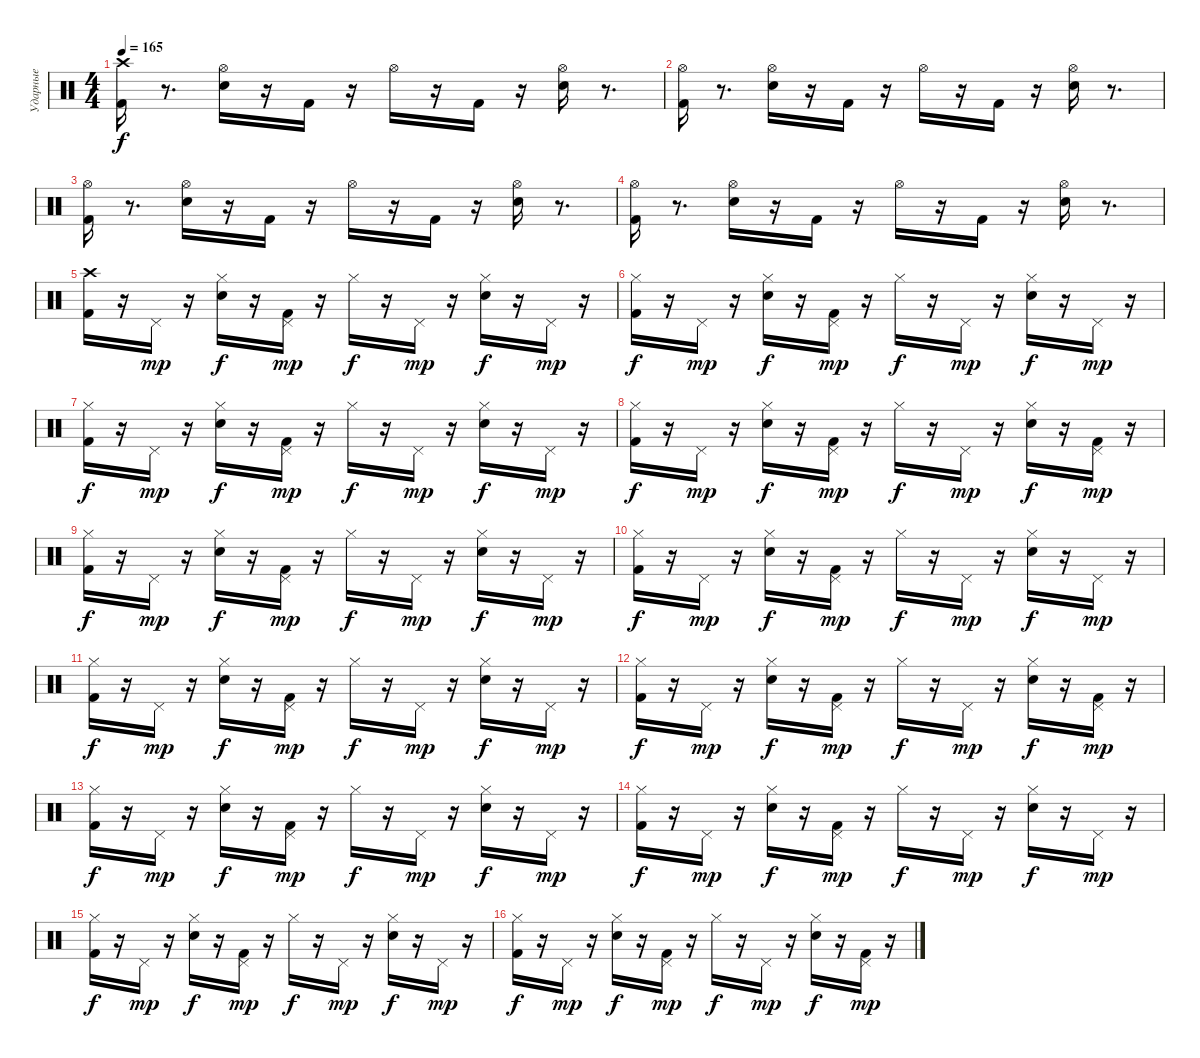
\track ("Ударные" "Ударные") {instrument percussion}
\staff {score}
\articulation defaults
\ts (4 4)
\tempo 165
\clef neutral
\ks c
("Crash high (hit)" "Kick (hit) 2").16{dy f} r.8{d} ("Hi-Hat (open)" "Electric Snare (hit)").16 r.16 "Kick (hit) 2".16 r.16 "Hi-Hat (open)".16 r.16 "Kick (hit) 2".16 r.16 ("Electric Snare (hit)" "Hi-Hat (open)").16 r.8{d} |
("Hi-Hat (open)" "Kick (hit) 2").16 r.8{d} ("Hi-Hat (open)" "Electric Snare (hit)").16 r.16 "Kick (hit) 2".16 r.16 "Hi-Hat (open)".16 r.16 "Kick (hit) 2".16 r.16 ("Electric Snare (hit)" "Hi-Hat (open)").16 r.8{d} |
("Kick (hit) 2" "Hi-Hat (open)").16 r.8{d} ("Hi-Hat (open)" "Electric Snare (hit)").16 r.16 "Kick (hit) 2".16 r.16 "Hi-Hat (open)".16 r.16 "Kick (hit) 2".16 r.16 ("Electric Snare (hit)" "Hi-Hat (open)").16 r.8{d} |
("Kick (hit) 2" "Hi-Hat (open)").16 r.8{d} ("Hi-Hat (open)" "Electric Snare (hit)").16 r.16 "Kick (hit) 2".16 r.16 "Hi-Hat (open)".16 r.16 "Kick (hit) 2".16 r.16 ("Electric Snare (hit)" "Hi-Hat (open)").16 r.8{d} |
("Crash high (hit)" "Kick (hit) 2").16 r.16 "Pedal Hi-Hat (hit)".16{dy mp} r.16 ("Hi-Hat (closed)" "Electric Snare (hit)").16{dy f} r.16 ("Pedal Hi-Hat (hit)" "Kick (hit) 2").16{dy mp} r.16 "Hi-Hat (closed)".16{dy f} r.16 "Pedal Hi-Hat (hit)".16{dy mp} r.16 ("Hi-Hat (closed)" "Electric Snare (hit)").16{dy f} r.16 "Pedal Hi-Hat (hit)".16{dy mp} r.16 |
("Hi-Hat (closed)" "Kick (hit) 2").16{dy f} r.16 "Pedal Hi-Hat (hit)".16{dy mp} r.16 ("Hi-Hat (closed)" "Electric Snare (hit)").16{dy f} r.16 ("Pedal Hi-Hat (hit)" "Kick (hit) 2").16{dy mp} r.16 "Hi-Hat (closed)".16{dy f} r.16 "Pedal Hi-Hat (hit)".16{dy mp} r.16 ("Hi-Hat (closed)" "Electric Snare (hit)").16{dy f} r.16 "Pedal Hi-Hat (hit)".16{dy mp} r.16 |
("Hi-Hat (closed)" "Kick (hit) 2").16{dy f} r.16 "Pedal Hi-Hat (hit)".16{dy mp} r.16 ("Hi-Hat (closed)" "Electric Snare (hit)").16{dy f} r.16 ("Pedal Hi-Hat (hit)" "Kick (hit) 2").16{dy mp} r.16 "Hi-Hat (closed)".16{dy f} r.16 "Pedal Hi-Hat (hit)".16{dy mp} r.16 ("Hi-Hat (closed)" "Electric Snare (hit)").16{dy f} r.16 "Pedal Hi-Hat (hit)".16{dy mp} r.16 |
("Hi-Hat (closed)" "Kick (hit) 2").16{dy f} r.16 "Pedal Hi-Hat (hit)".16{dy mp} r.16 ("Hi-Hat (closed)" "Electric Snare (hit)").16{dy f} r.16 ("Kick (hit) 2" "Pedal Hi-Hat (hit)").16{dy mp} r.16 "Hi-Hat (closed)".16{dy f} r.16 "Pedal Hi-Hat (hit)".16{dy mp} r.16 ("Electric Snare (hit)" "Hi-Hat (closed)").16{dy f} r.16 ("Kick (hit) 2" "Pedal Hi-Hat (hit)").16{dy mp} r.16 |
("Hi-Hat (closed)" "Kick (hit) 2").16{dy f} r.16 "Pedal Hi-Hat (hit)".16{dy mp} r.16 ("Hi-Hat (closed)" "Electric Snare (hit)").16{dy f} r.16 ("Pedal Hi-Hat (hit)" "Kick (hit) 2").16{dy mp} r.16 "Hi-Hat (closed)".16{dy f} r.16 "Pedal Hi-Hat (hit)".16{dy mp} r.16 ("Hi-Hat (closed)" "Electric Snare (hit)").16{dy f} r.16 "Pedal Hi-Hat (hit)".16{dy mp} r.16 |
("Kick (hit) 2" "Hi-Hat (closed)").16{dy f} r.16 "Pedal Hi-Hat (hit)".16{dy mp} r.16 ("Hi-Hat (closed)" "Electric Snare (hit)").16{dy f} r.16 ("Pedal Hi-Hat (hit)" "Kick (hit) 2").16{dy mp} r.16 "Hi-Hat (closed)".16{dy f} r.16 "Pedal Hi-Hat (hit)".16{dy mp} r.16 ("Electric Snare (hit)" "Hi-Hat (closed)").16{dy f} r.16 "Pedal Hi-Hat (hit)".16{dy mp} r.16 |
("Hi-Hat (closed)" "Kick (hit) 2").16{dy f} r.16 "Pedal Hi-Hat (hit)".16{dy mp} r.16 ("Hi-Hat (closed)" "Electric Snare (hit)").16{dy f} r.16 ("Pedal Hi-Hat (hit)" "Kick (hit) 2").16{dy mp} r.16 "Hi-Hat (closed)".16{dy f} r.16 "Pedal Hi-Hat (hit)".16{dy mp} r.16 ("Hi-Hat (closed)" "Electric Snare (hit)").16{dy f} r.16 "Pedal Hi-Hat (hit)".16{dy mp} r.16 |
("Hi-Hat (closed)" "Kick (hit) 2").16{dy f} r.16 "Pedal Hi-Hat (hit)".16{dy mp} r.16 ("Electric Snare (hit)" "Hi-Hat (closed)").16{dy f} r.16 ("Kick (hit) 2" "Pedal Hi-Hat (hit)").16{dy mp} r.16 "Hi-Hat (closed)".16{dy f} r.16 "Pedal Hi-Hat (hit)".16{dy mp} r.16 ("Electric Snare (hit)" "Hi-Hat (closed)").16{dy f} r.16 ("Kick (hit) 2" "Pedal Hi-Hat (hit)").16{dy mp} r.16 |
("Hi-Hat (closed)" "Kick (hit) 2").16{dy f} r.16 "Pedal Hi-Hat (hit)".16{dy mp} r.16 ("Electric Snare (hit)" "Hi-Hat (closed)").16{dy f} r.16 ("Kick (hit) 2" "Pedal Hi-Hat (hit)").16{dy mp} r.16 "Hi-Hat (closed)".16{dy f} r.16 "Pedal Hi-Hat (hit)".16{dy mp} r.16 ("Hi-Hat (closed)" "Electric Snare (hit)").16{dy f} r.16 "Pedal Hi-Hat (hit)".16{dy mp} r.16 |
("Kick (hit) 2" "Hi-Hat (closed)").16{dy f} r.16 "Pedal Hi-Hat (hit)".16{dy mp} r.16 ("Hi-Hat (closed)" "Electric Snare (hit)").16{dy f} r.16 ("Kick (hit) 2" "Pedal Hi-Hat (hit)").16{dy mp} r.16 "Hi-Hat (closed)".16{dy f} r.16 "Pedal Hi-Hat (hit)".16{dy mp} r.16 ("Electric Snare (hit)" "Hi-Hat (closed)").16{dy f} r.16 "Pedal Hi-Hat (hit)".16{dy mp} r.16 |
("Kick (hit) 2" "Hi-Hat (closed)").16{dy f} r.16 "Pedal Hi-Hat (hit)".16{dy mp} r.16 ("Electric Snare (hit)" "Hi-Hat (closed)").16{dy f} r.16 ("Kick (hit) 2" "Pedal Hi-Hat (hit)").16{dy mp} r.16 "Hi-Hat (closed)".16{dy f} r.16 "Pedal Hi-Hat (hit)".16{dy mp} r.16 ("Electric Snare (hit)" "Hi-Hat (closed)").16{dy f} r.16 "Pedal Hi-Hat (hit)".16{dy mp} r.16 |
("Kick (hit) 2" "Hi-Hat (closed)").16{dy f} r.16 "Pedal Hi-Hat (hit)".16{dy mp} r.16 ("Hi-Hat (closed)" "Electric Snare (hit)").16{dy f} r.16 ("Pedal Hi-Hat (hit)" "Kick (hit) 2").16{dy mp} r.16 "Hi-Hat (closed)".16{dy f} r.16 "Pedal Hi-Hat (hit)".16{dy mp} r.16 ("Hi-Hat (closed)" "Electric Snare (hit)").16{dy f} r.16 ("Pedal Hi-Hat (hit)" "Kick (hit) 2").16{dy mp} r.16
